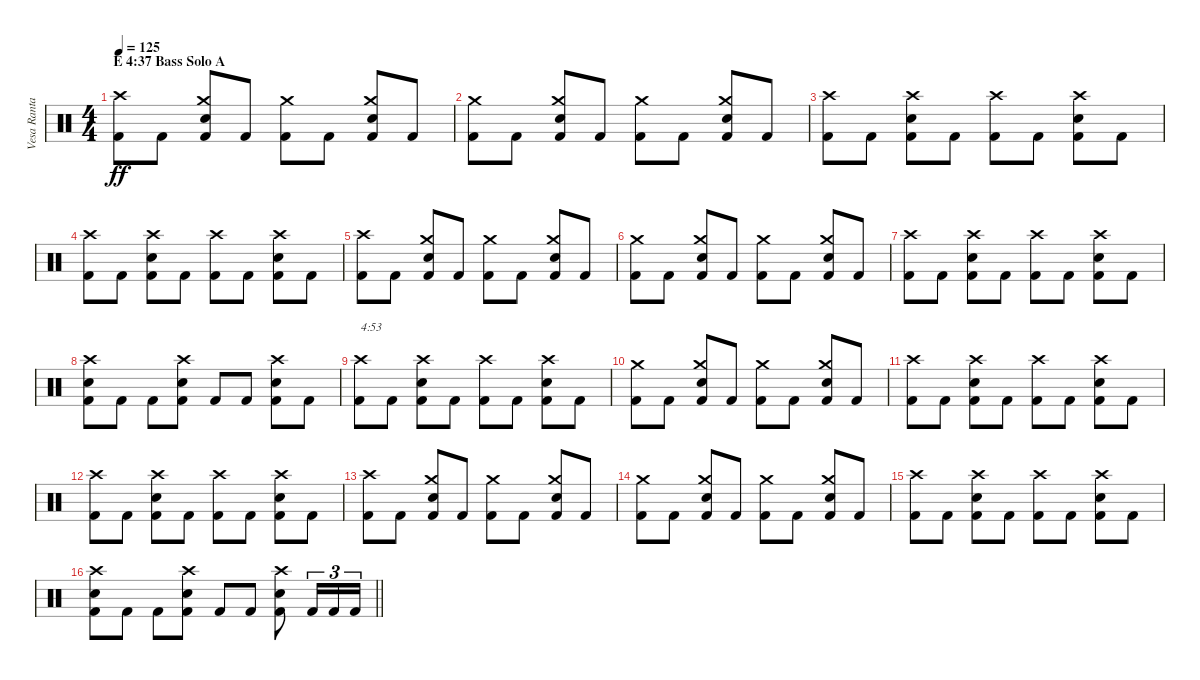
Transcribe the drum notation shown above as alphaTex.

\track ("Vesa Ranta (drums)" "Vesa Ranta") {instrument percussion}
\staff {score}
\articulation defaults
\ts (4 4)
\section ("" "E 4:37 Bass Solo A ")
\tempo 125
\clef neutral
\ks c
("Crash high (hit)" "Kick (hit) 2").8{dy ff} "Kick (hit) 2".8 ("Crash medium (hit)" "Electric Snare (hit)" "Kick (hit) 2").8 "Kick (hit) 2".8 ("Crash medium (hit)" "Kick (hit) 2").8 "Kick (hit) 2".8 ("Crash medium (hit)" "Electric Snare (hit)" "Kick (hit) 2").8 "Kick (hit) 2".8 |
("Crash medium (hit)" "Kick (hit) 2").8 "Kick (hit) 2".8 ("Crash medium (hit)" "Electric Snare (hit)" "Kick (hit) 2").8 "Kick (hit) 2".8 ("Crash medium (hit)" "Kick (hit) 2").8 "Kick (hit) 2".8 ("Crash medium (hit)" "Electric Snare (hit)" "Kick (hit) 2").8 "Kick (hit) 2".8 |
("Crash high (hit)" "Kick (hit) 2").8 "Kick (hit) 2".8 ("Crash high (hit)" "Electric Snare (hit)" "Kick (hit) 2").8 "Kick (hit) 2".8 ("Crash high (hit)" "Kick (hit) 2").8 "Kick (hit) 2".8 ("Crash high (hit)" "Electric Snare (hit)" "Kick (hit) 2").8 "Kick (hit) 2".8 |
("Crash high (hit)" "Kick (hit) 2").8 "Kick (hit) 2".8 ("Crash high (hit)" "Electric Snare (hit)" "Kick (hit) 2").8 "Kick (hit) 2".8 ("Crash high (hit)" "Kick (hit) 2").8 "Kick (hit) 2".8 ("Crash high (hit)" "Electric Snare (hit)" "Kick (hit) 2").8 "Kick (hit) 2".8 |
("Crash high (hit)" "Kick (hit) 2").8 "Kick (hit) 2".8 ("Crash medium (hit)" "Electric Snare (hit)" "Kick (hit) 2").8 "Kick (hit) 2".8 ("Crash medium (hit)" "Kick (hit) 2").8 "Kick (hit) 2".8 ("Crash medium (hit)" "Electric Snare (hit)" "Kick (hit) 2").8 "Kick (hit) 2".8 |
("Crash medium (hit)" "Kick (hit) 2").8 "Kick (hit) 2".8 ("Crash medium (hit)" "Electric Snare (hit)" "Kick (hit) 2").8 "Kick (hit) 2".8 ("Crash medium (hit)" "Kick (hit) 2").8 "Kick (hit) 2".8 ("Crash medium (hit)" "Electric Snare (hit)" "Kick (hit) 2").8 "Kick (hit) 2".8 |
("Crash high (hit)" "Kick (hit) 2").8 "Kick (hit) 2".8 ("Crash high (hit)" "Electric Snare (hit)" "Kick (hit) 2").8 "Kick (hit) 2".8 ("Crash high (hit)" "Kick (hit) 2").8 "Kick (hit) 2".8 ("Crash high (hit)" "Electric Snare (hit)" "Kick (hit) 2").8 "Kick (hit) 2".8 |
("Crash high (hit)" "Electric Snare (hit)" "Kick (hit) 2").8 "Kick (hit) 2".8 "Kick (hit) 2".8 ("Crash high (hit)" "Electric Snare (hit)" "Kick (hit) 2").8 "Kick (hit) 2".8 "Kick (hit) 2".8 ("Crash high (hit)" "Electric Snare (hit)" "Kick (hit) 2").8 "Kick (hit) 2".8 |
("Crash high (hit)" "Kick (hit) 2").8{txt "4:53"} "Kick (hit) 2".8 ("Crash high (hit)" "Electric Snare (hit)" "Kick (hit) 2").8 "Kick (hit) 2".8 ("Crash high (hit)" "Kick (hit) 2").8 "Kick (hit) 2".8 ("Crash high (hit)" "Electric Snare (hit)" "Kick (hit) 2").8 "Kick (hit) 2".8 |
("Crash medium (hit)" "Kick (hit) 2").8 "Kick (hit) 2".8 ("Crash medium (hit)" "Electric Snare (hit)" "Kick (hit) 2").8 "Kick (hit) 2".8 ("Crash medium (hit)" "Kick (hit) 2").8 "Kick (hit) 2".8 ("Crash medium (hit)" "Electric Snare (hit)" "Kick (hit) 2").8 "Kick (hit) 2".8 |
("Crash high (hit)" "Kick (hit) 2").8 "Kick (hit) 2".8 ("Crash high (hit)" "Electric Snare (hit)" "Kick (hit) 2").8 "Kick (hit) 2".8 ("Crash high (hit)" "Kick (hit) 2").8 "Kick (hit) 2".8 ("Crash high (hit)" "Electric Snare (hit)" "Kick (hit) 2").8 "Kick (hit) 2".8 |
("Crash high (hit)" "Kick (hit) 2").8 "Kick (hit) 2".8 ("Crash high (hit)" "Electric Snare (hit)" "Kick (hit) 2").8 "Kick (hit) 2".8 ("Crash high (hit)" "Kick (hit) 2").8 "Kick (hit) 2".8 ("Crash high (hit)" "Electric Snare (hit)" "Kick (hit) 2").8 "Kick (hit) 2".8 |
("Crash high (hit)" "Kick (hit) 2").8 "Kick (hit) 2".8 ("Crash medium (hit)" "Electric Snare (hit)" "Kick (hit) 2").8 "Kick (hit) 2".8 ("Crash medium (hit)" "Kick (hit) 2").8 "Kick (hit) 2".8 ("Crash medium (hit)" "Electric Snare (hit)" "Kick (hit) 2").8 "Kick (hit) 2".8 |
("Crash medium (hit)" "Kick (hit) 2").8 "Kick (hit) 2".8 ("Crash medium (hit)" "Electric Snare (hit)" "Kick (hit) 2").8 "Kick (hit) 2".8 ("Crash medium (hit)" "Kick (hit) 2").8 "Kick (hit) 2".8 ("Crash medium (hit)" "Electric Snare (hit)" "Kick (hit) 2").8 "Kick (hit) 2".8 |
("Crash high (hit)" "Kick (hit) 2").8 "Kick (hit) 2".8 ("Crash high (hit)" "Electric Snare (hit)" "Kick (hit) 2").8 "Kick (hit) 2".8 ("Crash high (hit)" "Kick (hit) 2").8 "Kick (hit) 2".8 ("Crash high (hit)" "Electric Snare (hit)" "Kick (hit) 2").8 "Kick (hit) 2".8 |
\barLineRight lightlight
("Crash high (hit)" "Electric Snare (hit)" "Kick (hit) 2").8 "Kick (hit) 2".8 "Kick (hit) 2".8 ("Crash high (hit)" "Electric Snare (hit)" "Kick (hit) 2").8 "Kick (hit) 2".8 "Kick (hit) 2".8 ("Crash high (hit)" "Electric Snare (hit)" "Kick (hit) 2").8 "Kick (hit) 2".16{tu (3 2)} "Kick (hit) 2".16{tu (3 2)} "Kick (hit) 2".16{tu (3 2)}
